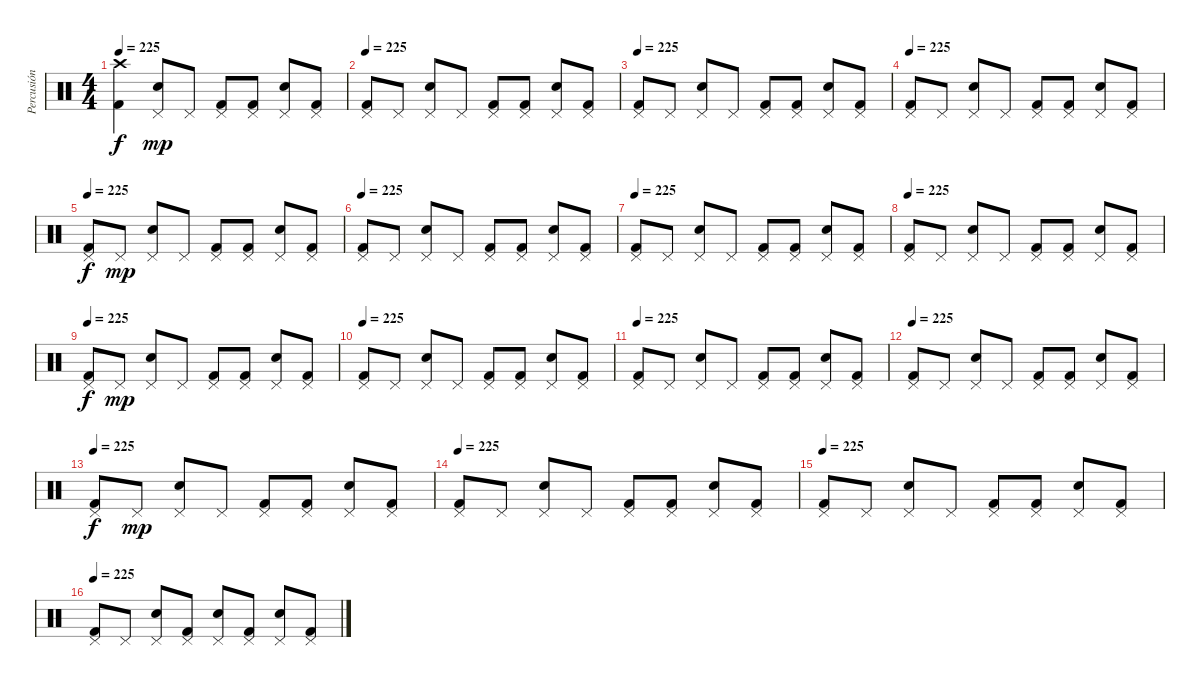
\track ("Percusión" "Percusión") {instrument percussion}
\staff {score}
\articulation defaults
\ts (4 4)
\tempo 225
\clef neutral
\ks c
("Crash high (hit)" "Kick (hit) 2").4{dy f} ("Pedal Hi-Hat (hit)" "Electric Snare (hit)").8{dy mp} "Pedal Hi-Hat (hit)".8 ("Pedal Hi-Hat (hit)" "Kick (hit) 2").8 ("Pedal Hi-Hat (hit)" "Kick (hit) 2").8 ("Pedal Hi-Hat (hit)" "Electric Snare (hit)").8 ("Pedal Hi-Hat (hit)" "Kick (hit) 2").8 |
\tempo 225
("Pedal Hi-Hat (hit)" "Kick (hit) 2").8 "Pedal Hi-Hat (hit)".8 ("Pedal Hi-Hat (hit)" "Electric Snare (hit)").8 "Pedal Hi-Hat (hit)".8 ("Pedal Hi-Hat (hit)" "Kick (hit) 2").8 ("Pedal Hi-Hat (hit)" "Kick (hit) 2").8 ("Pedal Hi-Hat (hit)" "Electric Snare (hit)").8 ("Pedal Hi-Hat (hit)" "Kick (hit) 2").8 |
\tempo 225
("Pedal Hi-Hat (hit)" "Kick (hit) 2").8 "Pedal Hi-Hat (hit)".8 ("Pedal Hi-Hat (hit)" "Electric Snare (hit)").8 "Pedal Hi-Hat (hit)".8 ("Pedal Hi-Hat (hit)" "Kick (hit) 2").8 ("Pedal Hi-Hat (hit)" "Kick (hit) 2").8 ("Pedal Hi-Hat (hit)" "Electric Snare (hit)").8 ("Pedal Hi-Hat (hit)" "Kick (hit) 2").8 |
\tempo 225
("Pedal Hi-Hat (hit)" "Kick (hit) 2").8 "Pedal Hi-Hat (hit)".8 ("Pedal Hi-Hat (hit)" "Electric Snare (hit)").8 "Pedal Hi-Hat (hit)".8 ("Pedal Hi-Hat (hit)" "Kick (hit) 2").8 ("Pedal Hi-Hat (hit)" "Kick (hit) 2").8 ("Pedal Hi-Hat (hit)" "Electric Snare (hit)").8 ("Pedal Hi-Hat (hit)" "Kick (hit) 2").8 |
\tempo 225
("Pedal Hi-Hat (hit)" "Kick (hit) 2").8{dy f} "Pedal Hi-Hat (hit)".8{dy mp} ("Pedal Hi-Hat (hit)" "Electric Snare (hit)").8 "Pedal Hi-Hat (hit)".8 ("Pedal Hi-Hat (hit)" "Kick (hit) 2").8 ("Pedal Hi-Hat (hit)" "Kick (hit) 2").8 ("Pedal Hi-Hat (hit)" "Electric Snare (hit)").8 ("Pedal Hi-Hat (hit)" "Kick (hit) 2").8 |
\tempo 225
("Pedal Hi-Hat (hit)" "Kick (hit) 2").8 "Pedal Hi-Hat (hit)".8 ("Pedal Hi-Hat (hit)" "Electric Snare (hit)").8 "Pedal Hi-Hat (hit)".8 ("Pedal Hi-Hat (hit)" "Kick (hit) 2").8 ("Pedal Hi-Hat (hit)" "Kick (hit) 2").8 ("Pedal Hi-Hat (hit)" "Electric Snare (hit)").8 ("Pedal Hi-Hat (hit)" "Kick (hit) 2").8 |
\tempo 225
("Pedal Hi-Hat (hit)" "Kick (hit) 2").8 "Pedal Hi-Hat (hit)".8 ("Pedal Hi-Hat (hit)" "Electric Snare (hit)").8 "Pedal Hi-Hat (hit)".8 ("Pedal Hi-Hat (hit)" "Kick (hit) 2").8 ("Pedal Hi-Hat (hit)" "Kick (hit) 2").8 ("Pedal Hi-Hat (hit)" "Electric Snare (hit)").8 ("Pedal Hi-Hat (hit)" "Kick (hit) 2").8 |
\tempo 225
("Pedal Hi-Hat (hit)" "Kick (hit) 2").8 "Pedal Hi-Hat (hit)".8 ("Pedal Hi-Hat (hit)" "Electric Snare (hit)").8 "Pedal Hi-Hat (hit)".8 ("Pedal Hi-Hat (hit)" "Kick (hit) 2").8 ("Pedal Hi-Hat (hit)" "Kick (hit) 2").8 ("Pedal Hi-Hat (hit)" "Electric Snare (hit)").8 ("Pedal Hi-Hat (hit)" "Kick (hit) 2").8 |
\tempo 225
("Pedal Hi-Hat (hit)" "Kick (hit) 2").8{dy f} "Pedal Hi-Hat (hit)".8{dy mp} ("Pedal Hi-Hat (hit)" "Electric Snare (hit)").8 "Pedal Hi-Hat (hit)".8 ("Pedal Hi-Hat (hit)" "Kick (hit) 2").8 ("Pedal Hi-Hat (hit)" "Kick (hit) 2").8 ("Pedal Hi-Hat (hit)" "Electric Snare (hit)").8 ("Pedal Hi-Hat (hit)" "Kick (hit) 2").8 |
\tempo 225
("Pedal Hi-Hat (hit)" "Kick (hit) 2").8 "Pedal Hi-Hat (hit)".8 ("Pedal Hi-Hat (hit)" "Electric Snare (hit)").8 "Pedal Hi-Hat (hit)".8 ("Pedal Hi-Hat (hit)" "Kick (hit) 2").8 ("Pedal Hi-Hat (hit)" "Kick (hit) 2").8 ("Pedal Hi-Hat (hit)" "Electric Snare (hit)").8 ("Pedal Hi-Hat (hit)" "Kick (hit) 2").8 |
\tempo 225
("Pedal Hi-Hat (hit)" "Kick (hit) 2").8 "Pedal Hi-Hat (hit)".8 ("Pedal Hi-Hat (hit)" "Electric Snare (hit)").8 "Pedal Hi-Hat (hit)".8 ("Pedal Hi-Hat (hit)" "Kick (hit) 2").8 ("Pedal Hi-Hat (hit)" "Kick (hit) 2").8 ("Pedal Hi-Hat (hit)" "Electric Snare (hit)").8 ("Pedal Hi-Hat (hit)" "Kick (hit) 2").8 |
\tempo 225
("Pedal Hi-Hat (hit)" "Kick (hit) 2").8 "Pedal Hi-Hat (hit)".8 ("Pedal Hi-Hat (hit)" "Electric Snare (hit)").8 "Pedal Hi-Hat (hit)".8 ("Pedal Hi-Hat (hit)" "Kick (hit) 2").8 ("Pedal Hi-Hat (hit)" "Kick (hit) 2").8 ("Pedal Hi-Hat (hit)" "Electric Snare (hit)").8 ("Pedal Hi-Hat (hit)" "Kick (hit) 2").8 |
\tempo 225
("Pedal Hi-Hat (hit)" "Kick (hit) 2").8{dy f} "Pedal Hi-Hat (hit)".8{dy mp} ("Pedal Hi-Hat (hit)" "Electric Snare (hit)").8 "Pedal Hi-Hat (hit)".8 ("Pedal Hi-Hat (hit)" "Kick (hit) 2").8 ("Pedal Hi-Hat (hit)" "Kick (hit) 2").8 ("Pedal Hi-Hat (hit)" "Electric Snare (hit)").8 ("Pedal Hi-Hat (hit)" "Kick (hit) 2").8 |
\tempo 225
("Pedal Hi-Hat (hit)" "Kick (hit) 2").8 "Pedal Hi-Hat (hit)".8 ("Pedal Hi-Hat (hit)" "Electric Snare (hit)").8 "Pedal Hi-Hat (hit)".8 ("Pedal Hi-Hat (hit)" "Kick (hit) 2").8 ("Pedal Hi-Hat (hit)" "Kick (hit) 2").8 ("Pedal Hi-Hat (hit)" "Electric Snare (hit)").8 ("Pedal Hi-Hat (hit)" "Kick (hit) 2").8 |
\tempo 225
("Pedal Hi-Hat (hit)" "Kick (hit) 2").8 "Pedal Hi-Hat (hit)".8 ("Pedal Hi-Hat (hit)" "Electric Snare (hit)").8 "Pedal Hi-Hat (hit)".8 ("Pedal Hi-Hat (hit)" "Kick (hit) 2").8 ("Pedal Hi-Hat (hit)" "Kick (hit) 2").8 ("Pedal Hi-Hat (hit)" "Electric Snare (hit)").8 ("Pedal Hi-Hat (hit)" "Kick (hit) 2").8 |
\tempo 225
("Pedal Hi-Hat (hit)" "Kick (hit) 2").8 "Pedal Hi-Hat (hit)".8 ("Pedal Hi-Hat (hit)" "Electric Snare (hit)").8 ("Pedal Hi-Hat (hit)" "Kick (hit) 2").8 ("Pedal Hi-Hat (hit)" "Electric Snare (hit)").8 ("Pedal Hi-Hat (hit)" "Kick (hit) 2").8 ("Pedal Hi-Hat (hit)" "Electric Snare (hit)").8 ("Pedal Hi-Hat (hit)" "Kick (hit) 2").8
